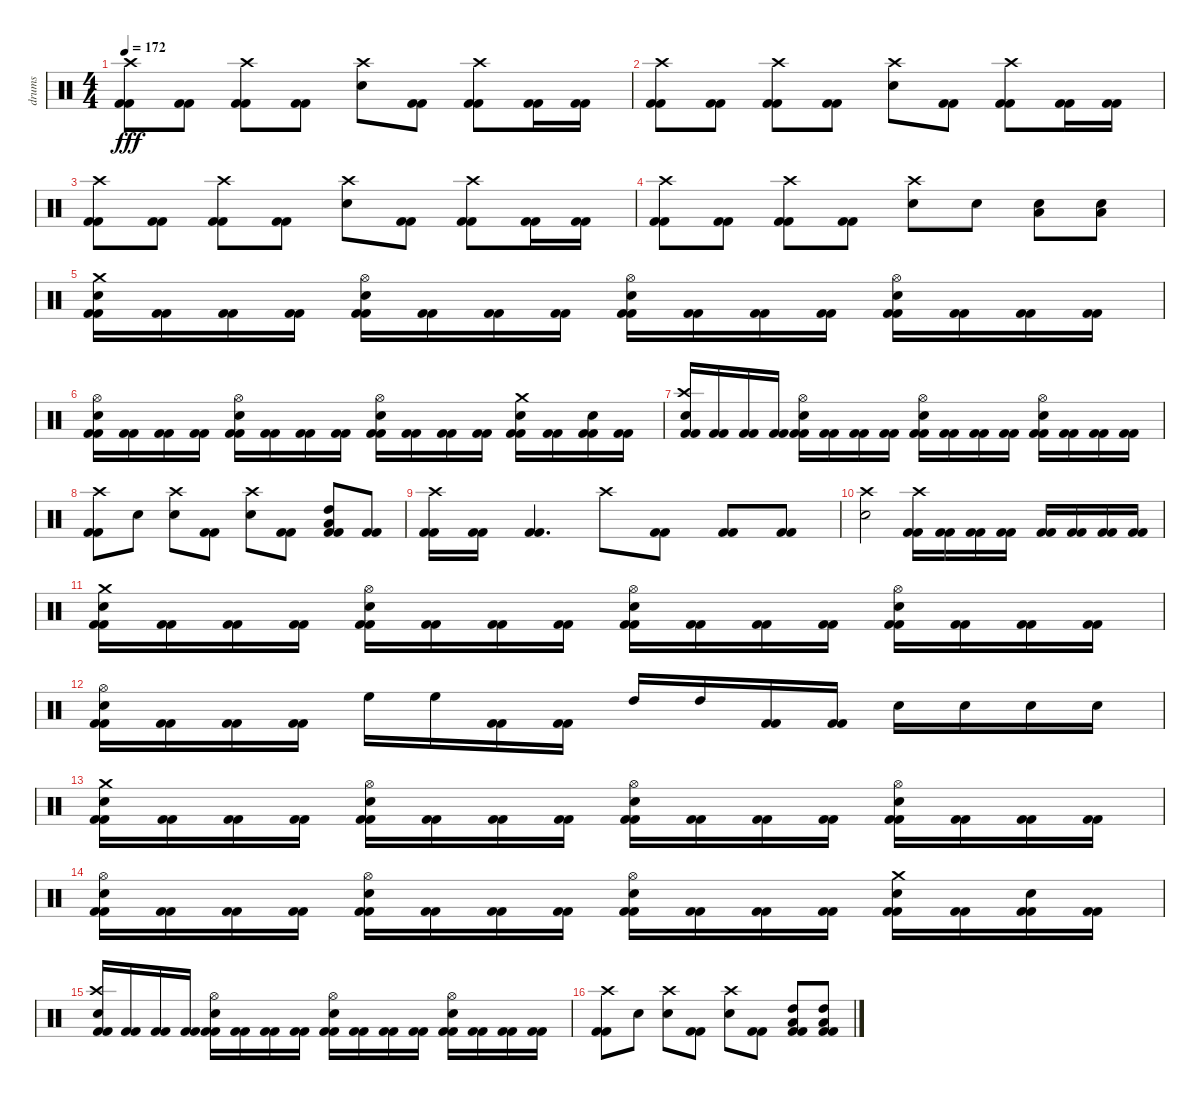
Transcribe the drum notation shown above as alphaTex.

\track ("drums" "drums") {instrument percussion}
\staff {score}
\articulation defaults
\ts (4 4)
\tempo 172
\clef neutral
\ks c
("Kick (hit) 2" "Kick (hit) 2" "Crash high (hit)").8{dy fff} ("Kick (hit) 2" "Kick (hit) 2").8 ("Kick (hit) 2" "Kick (hit) 2" "Crash high (hit)").8 ("Kick (hit) 2" "Kick (hit) 2").8 ("Electric Snare (hit)" "Crash high (hit)").8 ("Kick (hit) 2" "Kick (hit) 2").8 ("Kick (hit) 2" "Kick (hit) 2" "Crash high (hit)").8 ("Kick (hit) 2" "Kick (hit) 2").16 ("Kick (hit) 2" "Kick (hit) 2").16 |
("Kick (hit) 2" "Kick (hit) 2" "Crash high (hit)").8 ("Kick (hit) 2" "Kick (hit) 2").8 ("Kick (hit) 2" "Kick (hit) 2" "Crash high (hit)").8 ("Kick (hit) 2" "Kick (hit) 2").8 ("Electric Snare (hit)" "Crash high (hit)").8 ("Kick (hit) 2" "Kick (hit) 2").8 ("Kick (hit) 2" "Kick (hit) 2" "Crash high (hit)").8 ("Kick (hit) 2" "Kick (hit) 2").16 ("Kick (hit) 2" "Kick (hit) 2").16 |
("Kick (hit) 2" "Kick (hit) 2" "Crash high (hit)").8 ("Kick (hit) 2" "Kick (hit) 2").8 ("Kick (hit) 2" "Kick (hit) 2" "Crash high (hit)").8 ("Kick (hit) 2" "Kick (hit) 2").8 ("Electric Snare (hit)" "Crash high (hit)").8 ("Kick (hit) 2" "Kick (hit) 2").8 ("Kick (hit) 2" "Kick (hit) 2" "Crash high (hit)").8 ("Kick (hit) 2" "Kick (hit) 2").16 ("Kick (hit) 2" "Kick (hit) 2").16 |
("Kick (hit) 2" "Kick (hit) 2" "Crash high (hit)").8 ("Kick (hit) 2" "Kick (hit) 2").8 ("Kick (hit) 2" "Kick (hit) 2" "Crash high (hit)").8 ("Kick (hit) 2" "Kick (hit) 2").8 ("Electric Snare (hit)" "Crash high (hit)").8 "Electric Snare (hit)".8 ("Electric Snare (hit)" "Low Floor Tom (hit)").8 ("Electric Snare (hit)" "Low Floor Tom (hit)").8 |
("Kick (hit) 2" "Kick (hit) 2" "Electric Snare (hit)" "Crash medium (hit)").16 ("Kick (hit) 2" "Kick (hit) 2").16 ("Kick (hit) 2" "Kick (hit) 2").16 ("Kick (hit) 2" "Kick (hit) 2").16 ("Kick (hit) 2" "Kick (hit) 2" "Electric Snare (hit)" "Hi-Hat (open)").16 ("Kick (hit) 2" "Kick (hit) 2").16 ("Kick (hit) 2" "Kick (hit) 2").16 ("Kick (hit) 2" "Kick (hit) 2").16 ("Kick (hit) 2" "Kick (hit) 2" "Electric Snare (hit)" "Hi-Hat (open)").16 ("Kick (hit) 2" "Kick (hit) 2").16 ("Kick (hit) 2" "Kick (hit) 2").16 ("Kick (hit) 2" "Kick (hit) 2").16 ("Kick (hit) 2" "Kick (hit) 2" "Electric Snare (hit)" "Hi-Hat (open)").16 ("Kick (hit) 2" "Kick (hit) 2").16 ("Kick (hit) 2" "Kick (hit) 2").16 ("Kick (hit) 2" "Kick (hit) 2").16 |
("Kick (hit) 2" "Kick (hit) 2" "Electric Snare (hit)" "Hi-Hat (open)").16 ("Kick (hit) 2" "Kick (hit) 2").16 ("Kick (hit) 2" "Kick (hit) 2").16 ("Kick (hit) 2" "Kick (hit) 2").16 ("Kick (hit) 2" "Kick (hit) 2" "Electric Snare (hit)" "Hi-Hat (open)").16 ("Kick (hit) 2" "Kick (hit) 2").16 ("Kick (hit) 2" "Kick (hit) 2").16 ("Kick (hit) 2" "Kick (hit) 2").16 ("Kick (hit) 2" "Kick (hit) 2" "Electric Snare (hit)" "Hi-Hat (open)").16 ("Kick (hit) 2" "Kick (hit) 2").16 ("Kick (hit) 2" "Kick (hit) 2").16 ("Kick (hit) 2" "Kick (hit) 2").16 ("Kick (hit) 2" "Kick (hit) 2" "Electric Snare (hit)" "Crash medium (hit)").16 ("Kick (hit) 2" "Kick (hit) 2").16 ("Kick (hit) 2" "Kick (hit) 2" "Electric Snare (hit)").16 ("Kick (hit) 2" "Kick (hit) 2").16 |
("Kick (hit) 2" "Kick (hit) 2" "Electric Snare (hit)" "Crash high (hit)").16 ("Kick (hit) 2" "Kick (hit) 2").16 ("Kick (hit) 2" "Kick (hit) 2").16 ("Kick (hit) 2" "Kick (hit) 2").16 ("Kick (hit) 2" "Kick (hit) 2" "Electric Snare (hit)" "Hi-Hat (open)").16 ("Kick (hit) 2" "Kick (hit) 2").16 ("Kick (hit) 2" "Kick (hit) 2").16 ("Kick (hit) 2" "Kick (hit) 2").16 ("Kick (hit) 2" "Kick (hit) 2" "Electric Snare (hit)" "Hi-Hat (open)").16 ("Kick (hit) 2" "Kick (hit) 2").16 ("Kick (hit) 2" "Kick (hit) 2").16 ("Kick (hit) 2" "Kick (hit) 2").16 ("Kick (hit) 2" "Kick (hit) 2" "Electric Snare (hit)" "Hi-Hat (open)").16 ("Kick (hit) 2" "Kick (hit) 2").16 ("Kick (hit) 2" "Kick (hit) 2").16 ("Kick (hit) 2" "Kick (hit) 2").16 |
("Kick (hit) 2" "Kick (hit) 2" "Crash high (hit)").8 "Electric Snare (hit)".8 ("Electric Snare (hit)" "Crash high (hit)").8 ("Kick (hit) 2" "Kick (hit) 2").8 ("Electric Snare (hit)" "Crash high (hit)").8 ("Kick (hit) 2" "Kick (hit) 2").8 ("Kick (hit) 2" "Kick (hit) 2" "Low Floor Tom (hit)" "High Tom (hit)").8 ("Kick (hit) 2" "Kick (hit) 2").8 |
("Kick (hit) 2" "Kick (hit) 2" "Crash high (hit)").16 ("Kick (hit) 2" "Kick (hit) 2").16 ("Kick (hit) 2" "Kick (hit) 2").4{d} "Crash high (hit)".8 ("Kick (hit) 2" "Kick (hit) 2").8 ("Kick (hit) 2" "Kick (hit) 2").8 ("Kick (hit) 2" "Kick (hit) 2").8 |
("Electric Snare (hit)" "Crash high (hit)").2 ("Kick (hit) 2" "Kick (hit) 2" "Crash high (hit)").16 ("Kick (hit) 2" "Kick (hit) 2").16 ("Kick (hit) 2" "Kick (hit) 2").16 ("Kick (hit) 2" "Kick (hit) 2").16 ("Kick (hit) 2" "Kick (hit) 2").16 ("Kick (hit) 2" "Kick (hit) 2").16 ("Kick (hit) 2" "Kick (hit) 2").16 ("Kick (hit) 2" "Kick (hit) 2").16 |
("Kick (hit) 2" "Kick (hit) 2" "Electric Snare (hit)" "Crash medium (hit)").16 ("Kick (hit) 2" "Kick (hit) 2").16 ("Kick (hit) 2" "Kick (hit) 2").16 ("Kick (hit) 2" "Kick (hit) 2").16 ("Kick (hit) 2" "Kick (hit) 2" "Electric Snare (hit)" "Hi-Hat (open)").16 ("Kick (hit) 2" "Kick (hit) 2").16 ("Kick (hit) 2" "Kick (hit) 2").16 ("Kick (hit) 2" "Kick (hit) 2").16 ("Kick (hit) 2" "Kick (hit) 2" "Electric Snare (hit)" "Hi-Hat (open)").16 ("Kick (hit) 2" "Kick (hit) 2").16 ("Kick (hit) 2" "Kick (hit) 2").16 ("Kick (hit) 2" "Kick (hit) 2").16 ("Kick (hit) 2" "Kick (hit) 2" "Electric Snare (hit)" "Hi-Hat (open)").16 ("Kick (hit) 2" "Kick (hit) 2").16 ("Kick (hit) 2" "Kick (hit) 2").16 ("Kick (hit) 2" "Kick (hit) 2").16 |
("Kick (hit) 2" "Kick (hit) 2" "Electric Snare (hit)" "Hi-Hat (open)").16 ("Kick (hit) 2" "Kick (hit) 2").16 ("Kick (hit) 2" "Kick (hit) 2").16 ("Kick (hit) 2" "Kick (hit) 2").16 "High Floor Tom (hit)".16 "High Floor Tom (hit)".16 ("Kick (hit) 2" "Kick (hit) 2").16 ("Kick (hit) 2" "Kick (hit) 2").16 "High Tom (hit)".16 "High Tom (hit)".16 ("Kick (hit) 2" "Kick (hit) 2").16 ("Kick (hit) 2" "Kick (hit) 2").16 "Electric Snare (hit)".16 "Electric Snare (hit)".16 "Electric Snare (hit)".16 "Electric Snare (hit)".16 |
("Kick (hit) 2" "Kick (hit) 2" "Electric Snare (hit)" "Crash medium (hit)").16 ("Kick (hit) 2" "Kick (hit) 2").16 ("Kick (hit) 2" "Kick (hit) 2").16 ("Kick (hit) 2" "Kick (hit) 2").16 ("Kick (hit) 2" "Kick (hit) 2" "Electric Snare (hit)" "Hi-Hat (open)").16 ("Kick (hit) 2" "Kick (hit) 2").16 ("Kick (hit) 2" "Kick (hit) 2").16 ("Kick (hit) 2" "Kick (hit) 2").16 ("Kick (hit) 2" "Kick (hit) 2" "Electric Snare (hit)" "Hi-Hat (open)").16 ("Kick (hit) 2" "Kick (hit) 2").16 ("Kick (hit) 2" "Kick (hit) 2").16 ("Kick (hit) 2" "Kick (hit) 2").16 ("Kick (hit) 2" "Kick (hit) 2" "Electric Snare (hit)" "Hi-Hat (open)").16 ("Kick (hit) 2" "Kick (hit) 2").16 ("Kick (hit) 2" "Kick (hit) 2").16 ("Kick (hit) 2" "Kick (hit) 2").16 |
("Kick (hit) 2" "Kick (hit) 2" "Electric Snare (hit)" "Hi-Hat (open)").16 ("Kick (hit) 2" "Kick (hit) 2").16 ("Kick (hit) 2" "Kick (hit) 2").16 ("Kick (hit) 2" "Kick (hit) 2").16 ("Kick (hit) 2" "Kick (hit) 2" "Electric Snare (hit)" "Hi-Hat (open)").16 ("Kick (hit) 2" "Kick (hit) 2").16 ("Kick (hit) 2" "Kick (hit) 2").16 ("Kick (hit) 2" "Kick (hit) 2").16 ("Kick (hit) 2" "Kick (hit) 2" "Electric Snare (hit)" "Hi-Hat (open)").16 ("Kick (hit) 2" "Kick (hit) 2").16 ("Kick (hit) 2" "Kick (hit) 2").16 ("Kick (hit) 2" "Kick (hit) 2").16 ("Kick (hit) 2" "Kick (hit) 2" "Electric Snare (hit)" "Crash medium (hit)").16 ("Kick (hit) 2" "Kick (hit) 2").16 ("Kick (hit) 2" "Kick (hit) 2" "Electric Snare (hit)").16 ("Kick (hit) 2" "Kick (hit) 2").16 |
("Kick (hit) 2" "Kick (hit) 2" "Electric Snare (hit)" "Crash high (hit)").16 ("Kick (hit) 2" "Kick (hit) 2").16 ("Kick (hit) 2" "Kick (hit) 2").16 ("Kick (hit) 2" "Kick (hit) 2").16 ("Kick (hit) 2" "Kick (hit) 2" "Electric Snare (hit)" "Hi-Hat (open)").16 ("Kick (hit) 2" "Kick (hit) 2").16 ("Kick (hit) 2" "Kick (hit) 2").16 ("Kick (hit) 2" "Kick (hit) 2").16 ("Kick (hit) 2" "Kick (hit) 2" "Electric Snare (hit)" "Hi-Hat (open)").16 ("Kick (hit) 2" "Kick (hit) 2").16 ("Kick (hit) 2" "Kick (hit) 2").16 ("Kick (hit) 2" "Kick (hit) 2").16 ("Kick (hit) 2" "Kick (hit) 2" "Electric Snare (hit)" "Hi-Hat (open)").16 ("Kick (hit) 2" "Kick (hit) 2").16 ("Kick (hit) 2" "Kick (hit) 2").16 ("Kick (hit) 2" "Kick (hit) 2").16 |
("Kick (hit) 2" "Kick (hit) 2" "Crash high (hit)").8 "Electric Snare (hit)".8 ("Electric Snare (hit)" "Crash high (hit)").8 ("Kick (hit) 2" "Kick (hit) 2").8 ("Electric Snare (hit)" "Crash high (hit)").8 ("Kick (hit) 2" "Kick (hit) 2").8 ("Kick (hit) 2" "Kick (hit) 2" "Low Floor Tom (hit)" "High Tom (hit)").8 ("Kick (hit) 2" "Kick (hit) 2" "Low Floor Tom (hit)" "High Tom (hit)").8
